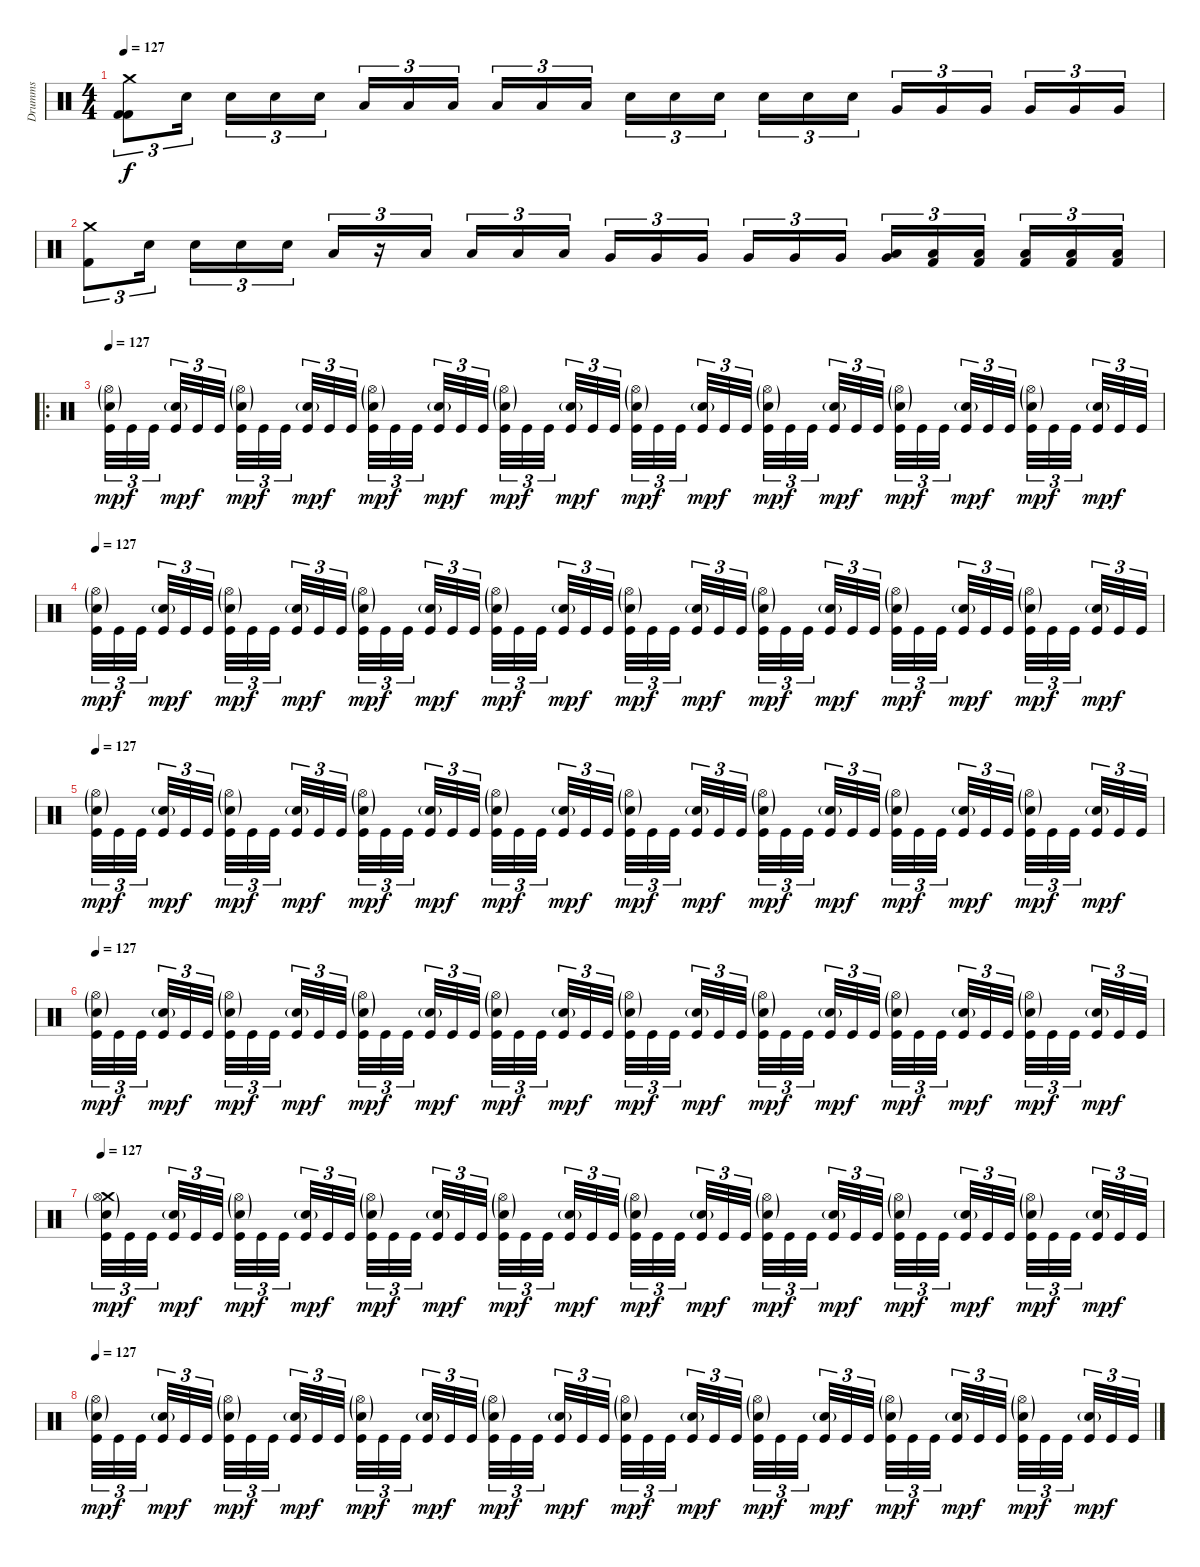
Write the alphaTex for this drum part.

\track ("Drumms" "Drumms") {instrument percussion}
\staff {score}
\articulation defaults
\ts (4 4)
\tempo 127
\clef neutral
\ks c
("Kick (hit) 2" "Kick (hit) 2" "Crash medium (hit)").8{tu (3 2) dy f} "Snare (hit) 2".16{tu (3 2)} "Snare (hit) 2".16{tu (3 2)} "Snare (hit) 2".16{tu (3 2)} "Snare (hit) 2".16{tu (3 2)} "Low Tom (hit)".16{tu (3 2)} "Low Tom (hit)".16{tu (3 2)} "Low Tom (hit)".16{tu (3 2)} "Low Tom (hit)".16{tu (3 2)} "Low Tom (hit)".16{tu (3 2)} "Low Tom (hit)".16{tu (3 2)} "Snare (hit) 2".16{tu (3 2)} "Snare (hit) 2".16{tu (3 2)} "Snare (hit) 2".16{tu (3 2)} "Snare (hit) 2".16{tu (3 2)} "Snare (hit) 2".16{tu (3 2)} "Snare (hit) 2".16{tu (3 2)} "Very Low Tom (hit)".16{tu (3 2)} "Very Low Tom (hit)".16{tu (3 2)} "Very Low Tom (hit)".16{tu (3 2)} "Very Low Tom (hit)".16{tu (3 2)} "Very Low Tom (hit)".16{tu (3 2)} "Very Low Tom (hit)".16{tu (3 2)} |
("Kick (hit) 2" "Crash medium (hit)").8{tu (3 2)} "Snare (hit) 2".16{tu (3 2)} "Snare (hit) 2".16{tu (3 2)} "Snare (hit) 2".16{tu (3 2)} "Snare (hit) 2".16{tu (3 2)} "Low Tom (hit)".16{tu (3 2)} r.16{tu (3 2)} "Low Tom (hit)".16{tu (3 2)} "Low Tom (hit)".16{tu (3 2)} "Low Tom (hit)".16{tu (3 2)} "Low Tom (hit)".16{tu (3 2)} "Very Low Tom (hit)".16{tu (3 2)} "Very Low Tom (hit)".16{tu (3 2)} "Very Low Tom (hit)".16{tu (3 2)} "Very Low Tom (hit)".16{tu (3 2)} "Very Low Tom (hit)".16{tu (3 2)} "Very Low Tom (hit)".16{tu (3 2)} ("Low Floor Tom (hit)" "Very Low Tom (hit)").16{tu (3 2)} ("Low Floor Tom (hit)" "Kick (hit) 2").16{tu (3 2)} ("Low Floor Tom (hit)" "Kick (hit) 2").16{tu (3 2)} ("Low Floor Tom (hit)" "Kick (hit) 2").16{tu (3 2)} ("Low Floor Tom (hit)" "Kick (hit) 2").16{tu (3 2)} ("Low Floor Tom (hit)" "Kick (hit) 2").16{tu (3 2)} |
\ro
\tempo 127
("Kick (hit)" "Hi-Hat (open)"{g} "Snare (hit) 2"{g}).32{tu (3 2) dy mp} "Kick (hit)".32{tu (3 2) dy f} "Kick (hit)".32{tu (3 2)} ("Kick (hit)" "Snare (hit) 2"{g}).32{tu (3 2) dy mp} "Kick (hit)".32{tu (3 2) dy f} "Kick (hit)".32{tu (3 2)} ("Kick (hit)" "Hi-Hat (open)"{g} "Snare (hit) 2"{g}).32{tu (3 2) dy mp} "Kick (hit)".32{tu (3 2) dy f} "Kick (hit)".32{tu (3 2)} ("Kick (hit)" "Snare (hit) 2"{g}).32{tu (3 2) dy mp} "Kick (hit)".32{tu (3 2) dy f} "Kick (hit)".32{tu (3 2)} ("Kick (hit)" "Snare (hit) 2"{g} "Hi-Hat (open)"{g}).32{tu (3 2) dy mp} "Kick (hit)".32{tu (3 2) dy f} "Kick (hit)".32{tu (3 2)} ("Kick (hit)" "Snare (hit) 2"{g}).32{tu (3 2) dy mp} "Kick (hit)".32{tu (3 2) dy f} "Kick (hit)".32{tu (3 2)} ("Kick (hit)" "Hi-Hat (open)"{g} "Snare (hit) 2"{g}).32{tu (3 2) dy mp} "Kick (hit)".32{tu (3 2) dy f} "Kick (hit)".32{tu (3 2)} ("Kick (hit)" "Snare (hit) 2"{g}).32{tu (3 2) dy mp} "Kick (hit)".32{tu (3 2) dy f} "Kick (hit)".32{tu (3 2)} ("Kick (hit)" "Hi-Hat (open)"{g} "Snare (hit) 2"{g}).32{tu (3 2) dy mp} "Kick (hit)".32{tu (3 2) dy f} "Kick (hit)".32{tu (3 2)} ("Kick (hit)" "Snare (hit) 2"{g}).32{tu (3 2) dy mp} "Kick (hit)".32{tu (3 2) dy f} "Kick (hit)".32{tu (3 2)} ("Kick (hit)" "Hi-Hat (open)"{g} "Snare (hit) 2"{g}).32{tu (3 2) dy mp} "Kick (hit)".32{tu (3 2) dy f} "Kick (hit)".32{tu (3 2)} ("Kick (hit)" "Snare (hit) 2"{g}).32{tu (3 2) dy mp} "Kick (hit)".32{tu (3 2) dy f} "Kick (hit)".32{tu (3 2)} ("Kick (hit)" "Hi-Hat (open)"{g} "Snare (hit) 2"{g}).32{tu (3 2) dy mp} "Kick (hit)".32{tu (3 2) dy f} "Kick (hit)".32{tu (3 2)} ("Kick (hit)" "Snare (hit) 2"{g}).32{tu (3 2) dy mp} "Kick (hit)".32{tu (3 2) dy f} "Kick (hit)".32{tu (3 2)} ("Kick (hit)" "Hi-Hat (open)"{g} "Snare (hit) 2"{g}).32{tu (3 2) dy mp} "Kick (hit)".32{tu (3 2) dy f} "Kick (hit)".32{tu (3 2)} ("Kick (hit)" "Snare (hit) 2"{g}).32{tu (3 2) dy mp} "Kick (hit)".32{tu (3 2) dy f} "Kick (hit)".32{tu (3 2)} |
\tempo 127
("Kick (hit)" "Hi-Hat (open)"{g} "Snare (hit) 2"{g}).32{tu (3 2) dy mp} "Kick (hit)".32{tu (3 2) dy f} "Kick (hit)".32{tu (3 2)} ("Kick (hit)" "Snare (hit) 2"{g}).32{tu (3 2) dy mp} "Kick (hit)".32{tu (3 2) dy f} "Kick (hit)".32{tu (3 2)} ("Kick (hit)" "Hi-Hat (open)"{g} "Snare (hit) 2"{g}).32{tu (3 2) dy mp} "Kick (hit)".32{tu (3 2) dy f} "Kick (hit)".32{tu (3 2)} ("Kick (hit)" "Snare (hit) 2"{g}).32{tu (3 2) dy mp} "Kick (hit)".32{tu (3 2) dy f} "Kick (hit)".32{tu (3 2)} ("Kick (hit)" "Snare (hit) 2"{g} "Hi-Hat (open)"{g}).32{tu (3 2) dy mp} "Kick (hit)".32{tu (3 2) dy f} "Kick (hit)".32{tu (3 2)} ("Kick (hit)" "Snare (hit) 2"{g}).32{tu (3 2) dy mp} "Kick (hit)".32{tu (3 2) dy f} "Kick (hit)".32{tu (3 2)} ("Kick (hit)" "Hi-Hat (open)"{g} "Snare (hit) 2"{g}).32{tu (3 2) dy mp} "Kick (hit)".32{tu (3 2) dy f} "Kick (hit)".32{tu (3 2)} ("Kick (hit)" "Snare (hit) 2"{g}).32{tu (3 2) dy mp} "Kick (hit)".32{tu (3 2) dy f} "Kick (hit)".32{tu (3 2)} ("Kick (hit)" "Hi-Hat (open)"{g} "Snare (hit) 2"{g}).32{tu (3 2) dy mp} "Kick (hit)".32{tu (3 2) dy f} "Kick (hit)".32{tu (3 2)} ("Kick (hit)" "Snare (hit) 2"{g}).32{tu (3 2) dy mp} "Kick (hit)".32{tu (3 2) dy f} "Kick (hit)".32{tu (3 2)} ("Kick (hit)" "Hi-Hat (open)"{g} "Snare (hit) 2"{g}).32{tu (3 2) dy mp} "Kick (hit)".32{tu (3 2) dy f} "Kick (hit)".32{tu (3 2)} ("Kick (hit)" "Snare (hit) 2"{g}).32{tu (3 2) dy mp} "Kick (hit)".32{tu (3 2) dy f} "Kick (hit)".32{tu (3 2)} ("Kick (hit)" "Hi-Hat (open)"{g} "Snare (hit) 2"{g}).32{tu (3 2) dy mp} "Kick (hit)".32{tu (3 2) dy f} "Kick (hit)".32{tu (3 2)} ("Kick (hit)" "Snare (hit) 2"{g}).32{tu (3 2) dy mp} "Kick (hit)".32{tu (3 2) dy f} "Kick (hit)".32{tu (3 2)} ("Kick (hit)" "Hi-Hat (open)"{g} "Snare (hit) 2"{g}).32{tu (3 2) dy mp} "Kick (hit)".32{tu (3 2) dy f} "Kick (hit)".32{tu (3 2)} ("Kick (hit)" "Snare (hit) 2"{g}).32{tu (3 2) dy mp} "Kick (hit)".32{tu (3 2) dy f} "Kick (hit)".32{tu (3 2)} |
\tempo 127
("Kick (hit)" "Hi-Hat (open)"{g} "Snare (hit) 2"{g}).32{tu (3 2) dy mp} "Kick (hit)".32{tu (3 2) dy f} "Kick (hit)".32{tu (3 2)} ("Kick (hit)" "Snare (hit) 2"{g}).32{tu (3 2) dy mp} "Kick (hit)".32{tu (3 2) dy f} "Kick (hit)".32{tu (3 2)} ("Kick (hit)" "Hi-Hat (open)"{g} "Snare (hit) 2"{g}).32{tu (3 2) dy mp} "Kick (hit)".32{tu (3 2) dy f} "Kick (hit)".32{tu (3 2)} ("Kick (hit)" "Snare (hit) 2"{g}).32{tu (3 2) dy mp} "Kick (hit)".32{tu (3 2) dy f} "Kick (hit)".32{tu (3 2)} ("Kick (hit)" "Snare (hit) 2"{g} "Hi-Hat (open)"{g}).32{tu (3 2) dy mp} "Kick (hit)".32{tu (3 2) dy f} "Kick (hit)".32{tu (3 2)} ("Kick (hit)" "Snare (hit) 2"{g}).32{tu (3 2) dy mp} "Kick (hit)".32{tu (3 2) dy f} "Kick (hit)".32{tu (3 2)} ("Kick (hit)" "Hi-Hat (open)"{g} "Snare (hit) 2"{g}).32{tu (3 2) dy mp} "Kick (hit)".32{tu (3 2) dy f} "Kick (hit)".32{tu (3 2)} ("Kick (hit)" "Snare (hit) 2"{g}).32{tu (3 2) dy mp} "Kick (hit)".32{tu (3 2) dy f} "Kick (hit)".32{tu (3 2)} ("Kick (hit)" "Hi-Hat (open)"{g} "Snare (hit) 2"{g}).32{tu (3 2) dy mp} "Kick (hit)".32{tu (3 2) dy f} "Kick (hit)".32{tu (3 2)} ("Kick (hit)" "Snare (hit) 2"{g}).32{tu (3 2) dy mp} "Kick (hit)".32{tu (3 2) dy f} "Kick (hit)".32{tu (3 2)} ("Kick (hit)" "Hi-Hat (open)"{g} "Snare (hit) 2"{g}).32{tu (3 2) dy mp} "Kick (hit)".32{tu (3 2) dy f} "Kick (hit)".32{tu (3 2)} ("Kick (hit)" "Snare (hit) 2"{g}).32{tu (3 2) dy mp} "Kick (hit)".32{tu (3 2) dy f} "Kick (hit)".32{tu (3 2)} ("Kick (hit)" "Hi-Hat (open)"{g} "Snare (hit) 2"{g}).32{tu (3 2) dy mp} "Kick (hit)".32{tu (3 2) dy f} "Kick (hit)".32{tu (3 2)} ("Kick (hit)" "Snare (hit) 2"{g}).32{tu (3 2) dy mp} "Kick (hit)".32{tu (3 2) dy f} "Kick (hit)".32{tu (3 2)} ("Kick (hit)" "Hi-Hat (open)"{g} "Snare (hit) 2"{g}).32{tu (3 2) dy mp} "Kick (hit)".32{tu (3 2) dy f} "Kick (hit)".32{tu (3 2)} ("Kick (hit)" "Snare (hit) 2"{g}).32{tu (3 2) dy mp} "Kick (hit)".32{tu (3 2) dy f} "Kick (hit)".32{tu (3 2)} |
\tempo 127
("Kick (hit)" "Hi-Hat (open)"{g} "Snare (hit) 2"{g}).32{tu (3 2) dy mp} "Kick (hit)".32{tu (3 2) dy f} "Kick (hit)".32{tu (3 2)} ("Kick (hit)" "Snare (hit) 2"{g}).32{tu (3 2) dy mp} "Kick (hit)".32{tu (3 2) dy f} "Kick (hit)".32{tu (3 2)} ("Kick (hit)" "Hi-Hat (open)"{g} "Snare (hit) 2"{g}).32{tu (3 2) dy mp} "Kick (hit)".32{tu (3 2) dy f} "Kick (hit)".32{tu (3 2)} ("Kick (hit)" "Snare (hit) 2"{g}).32{tu (3 2) dy mp} "Kick (hit)".32{tu (3 2) dy f} "Kick (hit)".32{tu (3 2)} ("Kick (hit)" "Snare (hit) 2"{g} "Hi-Hat (open)"{g}).32{tu (3 2) dy mp} "Kick (hit)".32{tu (3 2) dy f} "Kick (hit)".32{tu (3 2)} ("Kick (hit)" "Snare (hit) 2"{g}).32{tu (3 2) dy mp} "Kick (hit)".32{tu (3 2) dy f} "Kick (hit)".32{tu (3 2)} ("Kick (hit)" "Hi-Hat (open)"{g} "Snare (hit) 2"{g}).32{tu (3 2) dy mp} "Kick (hit)".32{tu (3 2) dy f} "Kick (hit)".32{tu (3 2)} ("Kick (hit)" "Snare (hit) 2"{g}).32{tu (3 2) dy mp} "Kick (hit)".32{tu (3 2) dy f} "Kick (hit)".32{tu (3 2)} ("Kick (hit)" "Hi-Hat (open)"{g} "Snare (hit) 2"{g}).32{tu (3 2) dy mp} "Kick (hit)".32{tu (3 2) dy f} "Kick (hit)".32{tu (3 2)} ("Kick (hit)" "Snare (hit) 2"{g}).32{tu (3 2) dy mp} "Kick (hit)".32{tu (3 2) dy f} "Kick (hit)".32{tu (3 2)} ("Kick (hit)" "Hi-Hat (open)"{g} "Snare (hit) 2"{g}).32{tu (3 2) dy mp} "Kick (hit)".32{tu (3 2) dy f} "Kick (hit)".32{tu (3 2)} ("Kick (hit)" "Snare (hit) 2"{g}).32{tu (3 2) dy mp} "Kick (hit)".32{tu (3 2) dy f} "Kick (hit)".32{tu (3 2)} ("Kick (hit)" "Hi-Hat (open)"{g} "Snare (hit) 2"{g}).32{tu (3 2) dy mp} "Kick (hit)".32{tu (3 2) dy f} "Kick (hit)".32{tu (3 2)} ("Kick (hit)" "Snare (hit) 2"{g}).32{tu (3 2) dy mp} "Kick (hit)".32{tu (3 2) dy f} "Kick (hit)".32{tu (3 2)} ("Kick (hit)" "Hi-Hat (open)"{g} "Snare (hit) 2"{g}).32{tu (3 2) dy mp} "Kick (hit)".32{tu (3 2) dy f} "Kick (hit)".32{tu (3 2)} ("Kick (hit)" "Snare (hit) 2"{g}).32{tu (3 2) dy mp} "Kick (hit)".32{tu (3 2) dy f} "Kick (hit)".32{tu (3 2)} |
\tempo 127
("Kick (hit)" "Crash medium (hit)" "Hi-Hat (open)"{g} "Snare (hit) 2"{g}).32{tu (3 2) dy mp} "Kick (hit)".32{tu (3 2) dy f} "Kick (hit)".32{tu (3 2)} ("Kick (hit)" "Snare (hit) 2"{g}).32{tu (3 2) dy mp} "Kick (hit)".32{tu (3 2) dy f} "Kick (hit)".32{tu (3 2)} ("Kick (hit)" "Hi-Hat (open)"{g} "Snare (hit) 2"{g}).32{tu (3 2) dy mp} "Kick (hit)".32{tu (3 2) dy f} "Kick (hit)".32{tu (3 2)} ("Kick (hit)" "Snare (hit) 2"{g}).32{tu (3 2) dy mp} "Kick (hit)".32{tu (3 2) dy f} "Kick (hit)".32{tu (3 2)} ("Kick (hit)" "Snare (hit) 2"{g} "Hi-Hat (open)"{g}).32{tu (3 2) dy mp} "Kick (hit)".32{tu (3 2) dy f} "Kick (hit)".32{tu (3 2)} ("Kick (hit)" "Snare (hit) 2"{g}).32{tu (3 2) dy mp} "Kick (hit)".32{tu (3 2) dy f} "Kick (hit)".32{tu (3 2)} ("Kick (hit)" "Hi-Hat (open)"{g} "Snare (hit) 2"{g}).32{tu (3 2) dy mp} "Kick (hit)".32{tu (3 2) dy f} "Kick (hit)".32{tu (3 2)} ("Kick (hit)" "Snare (hit) 2"{g}).32{tu (3 2) dy mp} "Kick (hit)".32{tu (3 2) dy f} "Kick (hit)".32{tu (3 2)} ("Kick (hit)" "Hi-Hat (open)"{g} "Snare (hit) 2"{g}).32{tu (3 2) dy mp} "Kick (hit)".32{tu (3 2) dy f} "Kick (hit)".32{tu (3 2)} ("Kick (hit)" "Snare (hit) 2"{g}).32{tu (3 2) dy mp} "Kick (hit)".32{tu (3 2) dy f} "Kick (hit)".32{tu (3 2)} ("Kick (hit)" "Hi-Hat (open)"{g} "Snare (hit) 2"{g}).32{tu (3 2) dy mp} "Kick (hit)".32{tu (3 2) dy f} "Kick (hit)".32{tu (3 2)} ("Kick (hit)" "Snare (hit) 2"{g}).32{tu (3 2) dy mp} "Kick (hit)".32{tu (3 2) dy f} "Kick (hit)".32{tu (3 2)} ("Kick (hit)" "Hi-Hat (open)"{g} "Snare (hit) 2"{g}).32{tu (3 2) dy mp} "Kick (hit)".32{tu (3 2) dy f} "Kick (hit)".32{tu (3 2)} ("Kick (hit)" "Snare (hit) 2"{g}).32{tu (3 2) dy mp} "Kick (hit)".32{tu (3 2) dy f} "Kick (hit)".32{tu (3 2)} ("Kick (hit)" "Hi-Hat (open)"{g} "Snare (hit) 2"{g}).32{tu (3 2) dy mp} "Kick (hit)".32{tu (3 2) dy f} "Kick (hit)".32{tu (3 2)} ("Kick (hit)" "Snare (hit) 2"{g}).32{tu (3 2) dy mp} "Kick (hit)".32{tu (3 2) dy f} "Kick (hit)".32{tu (3 2)} |
\tempo 127
("Kick (hit)" "Hi-Hat (open)"{g} "Snare (hit) 2"{g}).32{tu (3 2) dy mp} "Kick (hit)".32{tu (3 2) dy f} "Kick (hit)".32{tu (3 2)} ("Kick (hit)" "Snare (hit) 2"{g}).32{tu (3 2) dy mp} "Kick (hit)".32{tu (3 2) dy f} "Kick (hit)".32{tu (3 2)} ("Kick (hit)" "Hi-Hat (open)"{g} "Snare (hit) 2"{g}).32{tu (3 2) dy mp} "Kick (hit)".32{tu (3 2) dy f} "Kick (hit)".32{tu (3 2)} ("Kick (hit)" "Snare (hit) 2"{g}).32{tu (3 2) dy mp} "Kick (hit)".32{tu (3 2) dy f} "Kick (hit)".32{tu (3 2)} ("Kick (hit)" "Snare (hit) 2"{g} "Hi-Hat (open)"{g}).32{tu (3 2) dy mp} "Kick (hit)".32{tu (3 2) dy f} "Kick (hit)".32{tu (3 2)} ("Kick (hit)" "Snare (hit) 2"{g}).32{tu (3 2) dy mp} "Kick (hit)".32{tu (3 2) dy f} "Kick (hit)".32{tu (3 2)} ("Kick (hit)" "Hi-Hat (open)"{g} "Snare (hit) 2"{g}).32{tu (3 2) dy mp} "Kick (hit)".32{tu (3 2) dy f} "Kick (hit)".32{tu (3 2)} ("Kick (hit)" "Snare (hit) 2"{g}).32{tu (3 2) dy mp} "Kick (hit)".32{tu (3 2) dy f} "Kick (hit)".32{tu (3 2)} ("Kick (hit)" "Hi-Hat (open)"{g} "Snare (hit) 2"{g}).32{tu (3 2) dy mp} "Kick (hit)".32{tu (3 2) dy f} "Kick (hit)".32{tu (3 2)} ("Kick (hit)" "Snare (hit) 2"{g}).32{tu (3 2) dy mp} "Kick (hit)".32{tu (3 2) dy f} "Kick (hit)".32{tu (3 2)} ("Kick (hit)" "Hi-Hat (open)"{g} "Snare (hit) 2"{g}).32{tu (3 2) dy mp} "Kick (hit)".32{tu (3 2) dy f} "Kick (hit)".32{tu (3 2)} ("Kick (hit)" "Snare (hit) 2"{g}).32{tu (3 2) dy mp} "Kick (hit)".32{tu (3 2) dy f} "Kick (hit)".32{tu (3 2)} ("Kick (hit)" "Hi-Hat (open)"{g} "Snare (hit) 2"{g}).32{tu (3 2) dy mp} "Kick (hit)".32{tu (3 2) dy f} "Kick (hit)".32{tu (3 2)} ("Kick (hit)" "Snare (hit) 2"{g}).32{tu (3 2) dy mp} "Kick (hit)".32{tu (3 2) dy f} "Kick (hit)".32{tu (3 2)} ("Kick (hit)" "Hi-Hat (open)"{g} "Snare (hit) 2"{g}).32{tu (3 2) dy mp} "Kick (hit)".32{tu (3 2) dy f} "Kick (hit)".32{tu (3 2)} ("Kick (hit)" "Snare (hit) 2"{g}).32{tu (3 2) dy mp} "Kick (hit)".32{tu (3 2) dy f} "Kick (hit)".32{tu (3 2)}
